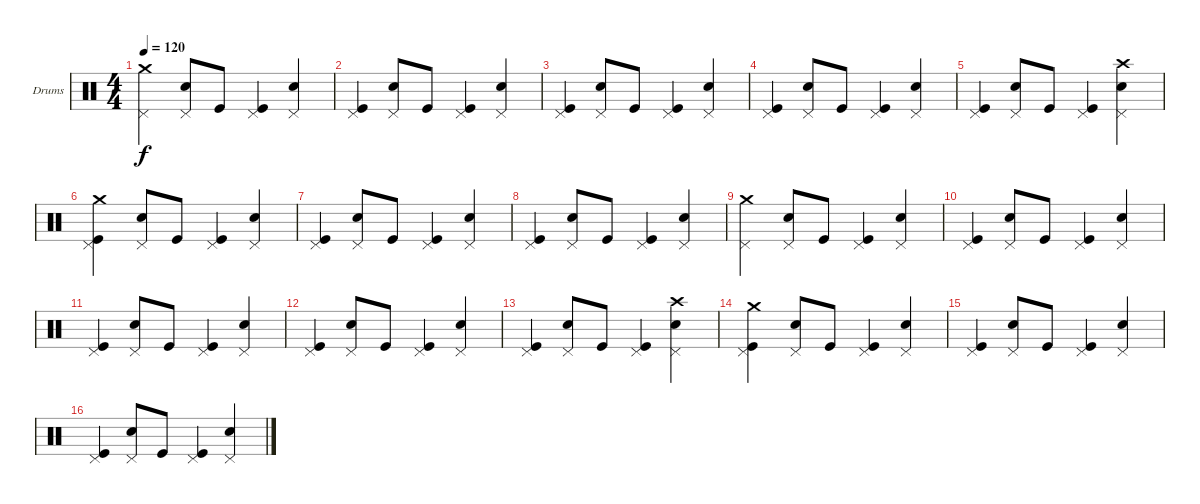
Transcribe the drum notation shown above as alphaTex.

\bracketExtendMode groupsimilarinstruments
\firstSystemTrackNameOrientation horizontal
\otherSystemsTrackNameOrientation horizontal
\track ("Drumkit" "Drums") {instrument percussion}
\staff {score}
\articulation defaults
\ts (4 4)
\tempo 120
\clef neutral
\ks c
("Crash medium (hit)" "Pedal Hi-Hat (hit)").4{dy f} ("Snare (hit) 2" "Pedal Hi-Hat (hit)").8 "Kick (hit)".8 ("Kick (hit)" "Pedal Hi-Hat (hit)").4 ("Snare (hit) 2" "Pedal Hi-Hat (hit)").4 |
("Kick (hit)" "Pedal Hi-Hat (hit)").4 ("Snare (hit) 2" "Pedal Hi-Hat (hit)").8 "Kick (hit)".8 ("Kick (hit)" "Pedal Hi-Hat (hit)").4 ("Snare (hit) 2" "Pedal Hi-Hat (hit)").4 |
("Kick (hit)" "Pedal Hi-Hat (hit)").4 ("Snare (hit) 2" "Pedal Hi-Hat (hit)").8 "Kick (hit)".8 ("Kick (hit)" "Pedal Hi-Hat (hit)").4 ("Snare (hit) 2" "Pedal Hi-Hat (hit)").4 |
("Kick (hit)" "Pedal Hi-Hat (hit)").4 ("Snare (hit) 2" "Pedal Hi-Hat (hit)").8 "Kick (hit)".8 ("Kick (hit)" "Pedal Hi-Hat (hit)").4 ("Snare (hit) 2" "Pedal Hi-Hat (hit)").4 |
("Kick (hit)" "Pedal Hi-Hat (hit)").4 ("Snare (hit) 2" "Pedal Hi-Hat (hit)").8 "Kick (hit)".8 ("Kick (hit)" "Pedal Hi-Hat (hit)").4 ("Snare (hit) 2" "Crash high (hit)" "Pedal Hi-Hat (hit)").4 |
("Kick (hit)" "Crash medium (hit)" "Pedal Hi-Hat (hit)").4 ("Snare (hit) 2" "Pedal Hi-Hat (hit)").8 "Kick (hit)".8 ("Kick (hit)" "Pedal Hi-Hat (hit)").4 ("Snare (hit) 2" "Pedal Hi-Hat (hit)").4 |
("Kick (hit)" "Pedal Hi-Hat (hit)").4 ("Snare (hit) 2" "Pedal Hi-Hat (hit)").8 "Kick (hit)".8 ("Kick (hit)" "Pedal Hi-Hat (hit)").4 ("Snare (hit) 2" "Pedal Hi-Hat (hit)").4 |
("Kick (hit)" "Pedal Hi-Hat (hit)").4 ("Snare (hit) 2" "Pedal Hi-Hat (hit)").8 "Kick (hit)".8 ("Kick (hit)" "Pedal Hi-Hat (hit)").4 ("Snare (hit) 2" "Pedal Hi-Hat (hit)").4 |
("Crash medium (hit)" "Pedal Hi-Hat (hit)").4 ("Snare (hit) 2" "Pedal Hi-Hat (hit)").8 "Kick (hit)".8 ("Kick (hit)" "Pedal Hi-Hat (hit)").4 ("Snare (hit) 2" "Pedal Hi-Hat (hit)").4 |
("Kick (hit)" "Pedal Hi-Hat (hit)").4 ("Snare (hit) 2" "Pedal Hi-Hat (hit)").8 "Kick (hit)".8 ("Kick (hit)" "Pedal Hi-Hat (hit)").4 ("Snare (hit) 2" "Pedal Hi-Hat (hit)").4 |
("Kick (hit)" "Pedal Hi-Hat (hit)").4 ("Snare (hit) 2" "Pedal Hi-Hat (hit)").8 "Kick (hit)".8 ("Kick (hit)" "Pedal Hi-Hat (hit)").4 ("Snare (hit) 2" "Pedal Hi-Hat (hit)").4 |
("Kick (hit)" "Pedal Hi-Hat (hit)").4 ("Snare (hit) 2" "Pedal Hi-Hat (hit)").8 "Kick (hit)".8 ("Kick (hit)" "Pedal Hi-Hat (hit)").4 ("Snare (hit) 2" "Pedal Hi-Hat (hit)").4 |
("Kick (hit)" "Pedal Hi-Hat (hit)").4 ("Snare (hit) 2" "Pedal Hi-Hat (hit)").8 "Kick (hit)".8 ("Kick (hit)" "Pedal Hi-Hat (hit)").4 ("Snare (hit) 2" "Crash high (hit)" "Pedal Hi-Hat (hit)").4 |
("Kick (hit)" "Crash medium (hit)" "Pedal Hi-Hat (hit)").4 ("Snare (hit) 2" "Pedal Hi-Hat (hit)").8 "Kick (hit)".8 ("Kick (hit)" "Pedal Hi-Hat (hit)").4 ("Snare (hit) 2" "Pedal Hi-Hat (hit)").4 |
("Kick (hit)" "Pedal Hi-Hat (hit)").4 ("Snare (hit) 2" "Pedal Hi-Hat (hit)").8 "Kick (hit)".8 ("Kick (hit)" "Pedal Hi-Hat (hit)").4 ("Snare (hit) 2" "Pedal Hi-Hat (hit)").4 |
("Kick (hit)" "Pedal Hi-Hat (hit)").4 ("Snare (hit) 2" "Pedal Hi-Hat (hit)").8 "Kick (hit)".8 ("Kick (hit)" "Pedal Hi-Hat (hit)").4 ("Snare (hit) 2" "Pedal Hi-Hat (hit)").4
